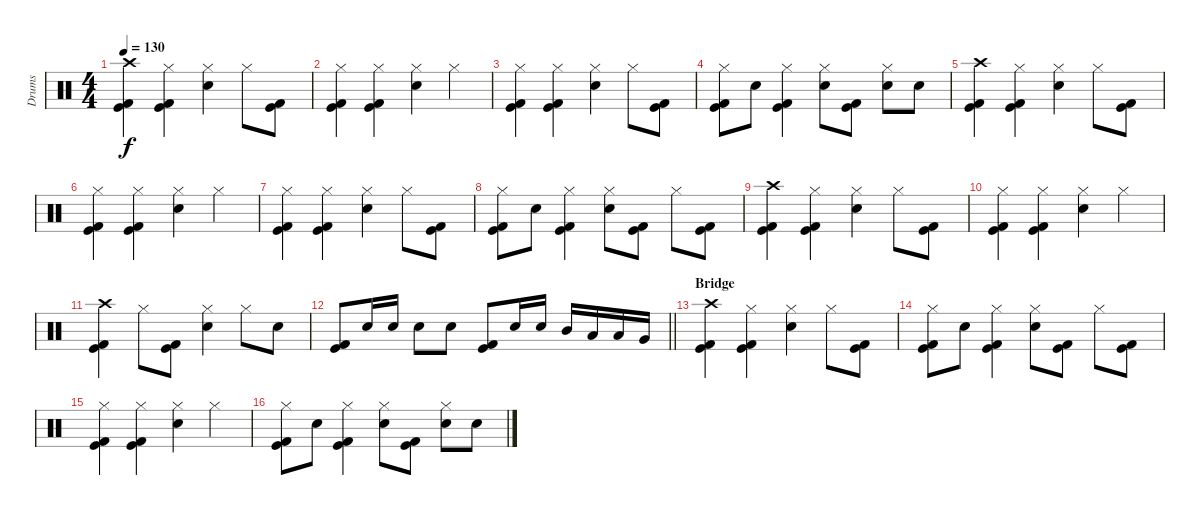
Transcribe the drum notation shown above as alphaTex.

\track ("Drums" "Drums") {instrument percussion}
\staff {score}
\articulation defaults
\ts (4 4)
\tempo 130
\clef neutral
\ks c
("Crash high (hit)" "Kick (hit)" "Kick (hit) 2").4{dy f} ("Hi-Hat (closed)" "Kick (hit)" "Kick (hit) 2").4 ("Hi-Hat (closed)" "Electric Snare (hit)").4 "Hi-Hat (closed)".8 ("Kick (hit)" "Kick (hit) 2").8 |
("Hi-Hat (closed)" "Kick (hit)" "Kick (hit) 2").4 ("Hi-Hat (closed)" "Kick (hit)" "Kick (hit) 2").4 ("Hi-Hat (closed)" "Electric Snare (hit)").4 "Hi-Hat (closed)".4 |
("Hi-Hat (closed)" "Kick (hit)" "Kick (hit) 2").4 ("Hi-Hat (closed)" "Kick (hit)" "Kick (hit) 2").4 ("Hi-Hat (closed)" "Electric Snare (hit)").4 "Hi-Hat (closed)".8 ("Kick (hit)" "Kick (hit) 2").8 |
("Hi-Hat (closed)" "Kick (hit)" "Kick (hit) 2").8 "Electric Snare (hit)".8 ("Hi-Hat (closed)" "Kick (hit)" "Kick (hit) 2").4 ("Hi-Hat (closed)" "Electric Snare (hit)").8 ("Kick (hit)" "Kick (hit) 2").8 ("Hi-Hat (closed)" "Electric Snare (hit)").8 "Electric Snare (hit)".8 |
("Crash high (hit)" "Kick (hit)" "Kick (hit) 2").4 ("Hi-Hat (closed)" "Kick (hit)" "Kick (hit) 2").4 ("Hi-Hat (closed)" "Electric Snare (hit)").4 "Hi-Hat (closed)".8 ("Kick (hit)" "Kick (hit) 2").8 |
("Hi-Hat (closed)" "Kick (hit)" "Kick (hit) 2").4 ("Hi-Hat (closed)" "Kick (hit)" "Kick (hit) 2").4 ("Hi-Hat (closed)" "Electric Snare (hit)").4 "Hi-Hat (closed)".4 |
("Hi-Hat (closed)" "Kick (hit)" "Kick (hit) 2").4 ("Hi-Hat (closed)" "Kick (hit)" "Kick (hit) 2").4 ("Hi-Hat (closed)" "Electric Snare (hit)").4 "Hi-Hat (closed)".8 ("Kick (hit)" "Kick (hit) 2").8 |
("Hi-Hat (closed)" "Kick (hit)" "Kick (hit) 2").8 "Electric Snare (hit)".8 ("Hi-Hat (closed)" "Kick (hit)" "Kick (hit) 2").4 ("Hi-Hat (closed)" "Electric Snare (hit)").8 ("Kick (hit)" "Kick (hit) 2").8 "Hi-Hat (closed)".8 ("Kick (hit)" "Kick (hit) 2").8 |
("Crash high (hit)" "Kick (hit)" "Kick (hit) 2").4 ("Hi-Hat (closed)" "Kick (hit)" "Kick (hit) 2").4 ("Hi-Hat (closed)" "Electric Snare (hit)").4 "Hi-Hat (closed)".8 ("Kick (hit)" "Kick (hit) 2").8 |
("Hi-Hat (closed)" "Kick (hit)" "Kick (hit) 2").4 ("Hi-Hat (closed)" "Kick (hit)" "Kick (hit) 2").4 ("Hi-Hat (closed)" "Electric Snare (hit)").4 "Hi-Hat (closed)".4 |
("Crash high (hit)" "Kick (hit)" "Kick (hit) 2").4 "Hi-Hat (closed)".8 ("Kick (hit)" "Kick (hit) 2").8 ("Hi-Hat (closed)" "Electric Snare (hit)").4 "Hi-Hat (closed)".8 "Electric Snare (hit)".8 |
\barLineRight lightlight
("Kick (hit)" "Kick (hit) 2").8 "Electric Snare (hit)".16 "Electric Snare (hit)".16 "Electric Snare (hit)".8 "Electric Snare (hit)".8 ("Kick (hit)" "Kick (hit) 2").8 "Electric Snare (hit)".16 "Electric Snare (hit)".16 "Mid Tom (hit)".16 "Low Tom (hit)".16 "Low Tom (hit)".16 "Very Low Tom (hit)".16 |
\section ("" "Bridge")
("Crash high (hit)" "Kick (hit)" "Kick (hit) 2").4 ("Hi-Hat (closed)" "Kick (hit)" "Kick (hit) 2").4 ("Hi-Hat (closed)" "Electric Snare (hit)").4 "Hi-Hat (closed)".8 ("Kick (hit)" "Kick (hit) 2").8 |
("Hi-Hat (closed)" "Kick (hit)" "Kick (hit) 2").8 "Electric Snare (hit)".8 ("Hi-Hat (closed)" "Kick (hit)" "Kick (hit) 2").4 ("Hi-Hat (closed)" "Electric Snare (hit)").8 ("Kick (hit)" "Kick (hit) 2").8 "Hi-Hat (closed)".8 ("Kick (hit)" "Kick (hit) 2").8 |
("Hi-Hat (closed)" "Kick (hit)" "Kick (hit) 2").4 ("Hi-Hat (closed)" "Kick (hit)" "Kick (hit) 2").4 ("Hi-Hat (closed)" "Electric Snare (hit)").4 "Hi-Hat (closed)".4 |
("Hi-Hat (closed)" "Kick (hit)" "Kick (hit) 2").8 "Electric Snare (hit)".8 ("Hi-Hat (closed)" "Kick (hit)" "Kick (hit) 2").4 ("Hi-Hat (closed)" "Electric Snare (hit)").8 ("Kick (hit)" "Kick (hit) 2").8 ("Hi-Hat (closed)" "Electric Snare (hit)").8 "Electric Snare (hit)".8
